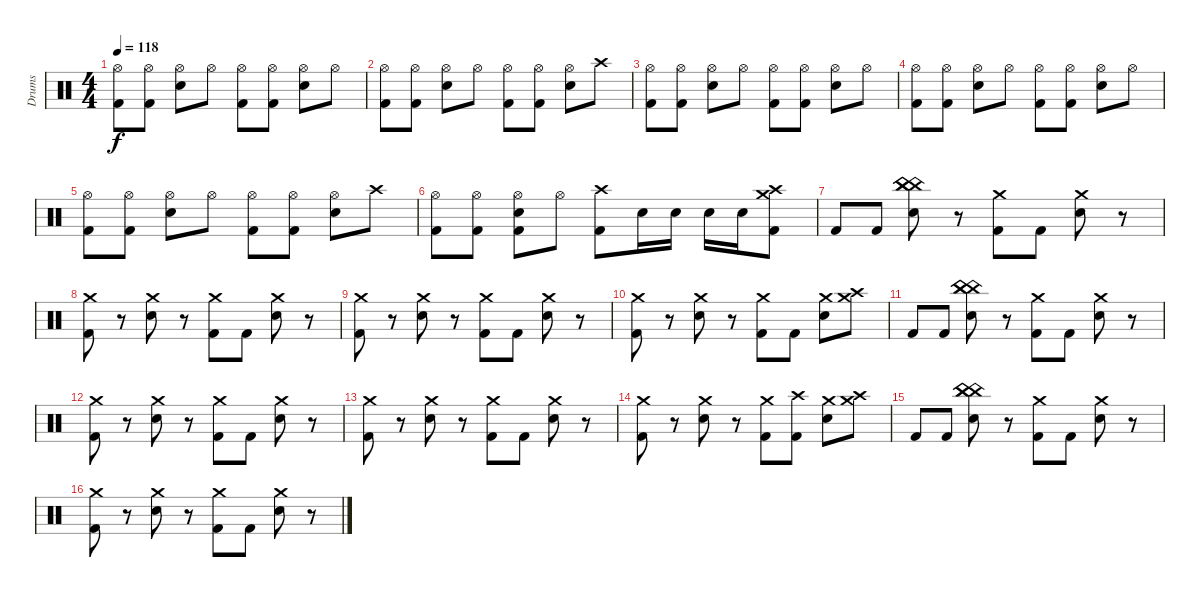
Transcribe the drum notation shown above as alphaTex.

\track ("Drums" "Drums") {instrument percussion}
\staff {score}
\articulation defaults
\ts (4 4)
\tempo 118
\clef neutral
\ks c
("Hi-Hat (open)" "Kick (hit) 2").8{dy f} ("Hi-Hat (open)" "Kick (hit) 2").8 ("Hi-Hat (open)" "Electric Snare (hit)").8 "Hi-Hat (open)".8 ("Hi-Hat (open)" "Kick (hit) 2").8 ("Hi-Hat (open)" "Kick (hit) 2").8 ("Hi-Hat (open)" "Electric Snare (hit)").8 "Hi-Hat (open)".8 |
("Hi-Hat (open)" "Kick (hit) 2").8 ("Hi-Hat (open)" "Kick (hit) 2").8 ("Hi-Hat (open)" "Electric Snare (hit)").8 "Hi-Hat (open)".8 ("Hi-Hat (open)" "Kick (hit) 2").8 ("Hi-Hat (open)" "Kick (hit) 2").8 ("Hi-Hat (open)" "Electric Snare (hit)").8 "Crash high (hit)".8 |
("Hi-Hat (open)" "Kick (hit) 2").8 ("Hi-Hat (open)" "Kick (hit) 2").8 ("Hi-Hat (open)" "Electric Snare (hit)").8 "Hi-Hat (open)".8 ("Hi-Hat (open)" "Kick (hit) 2").8 ("Hi-Hat (open)" "Kick (hit) 2").8 ("Hi-Hat (open)" "Electric Snare (hit)").8 "Hi-Hat (open)".8 |
("Hi-Hat (open)" "Kick (hit) 2").8 ("Hi-Hat (open)" "Kick (hit) 2").8 ("Hi-Hat (open)" "Electric Snare (hit)").8 "Hi-Hat (open)".8 ("Hi-Hat (open)" "Kick (hit) 2").8 ("Hi-Hat (open)" "Kick (hit) 2").8 ("Hi-Hat (open)" "Electric Snare (hit)").8 "Hi-Hat (open)".8 |
("Hi-Hat (open)" "Kick (hit) 2").8 ("Hi-Hat (open)" "Kick (hit) 2").8 ("Hi-Hat (open)" "Electric Snare (hit)").8 "Hi-Hat (open)".8 ("Hi-Hat (open)" "Kick (hit) 2").8 ("Hi-Hat (open)" "Kick (hit) 2").8 ("Hi-Hat (open)" "Electric Snare (hit)").8 "Crash high (hit)".8 |
("Hi-Hat (open)" "Kick (hit) 2").8 ("Hi-Hat (open)" "Kick (hit) 2").8 ("Hi-Hat (open)" "Electric Snare (hit)" "Kick (hit) 2").8 "Hi-Hat (open)".8 ("Crash high (hit)" "Kick (hit) 2").8 "Electric Snare (hit)".16 "Electric Snare (hit)".16 "Electric Snare (hit)".16 "Electric Snare (hit)".16 ("Crash medium (hit)" "Crash high (hit)" "Kick (hit) 2").8 |
"Kick (hit) 2".8 "Kick (hit) 2".8 ("China (hit)" "China (hit)" "China (hit)" "Electric Snare (hit)").8 r.8 ("Crash medium (hit)" "Kick (hit) 2").8 "Kick (hit) 2".8 ("Crash medium (hit)" "Electric Snare (hit)").8 r.8 |
("Crash medium (hit)" "Kick (hit) 2").8 r.8 ("Crash medium (hit)" "Electric Snare (hit)").8 r.8 ("Crash medium (hit)" "Kick (hit) 2").8 "Kick (hit) 2".8 ("Crash medium (hit)" "Electric Snare (hit)").8 r.8 |
("Crash medium (hit)" "Kick (hit) 2").8 r.8 ("Crash medium (hit)" "Electric Snare (hit)").8 r.8 ("Crash medium (hit)" "Kick (hit) 2").8 "Kick (hit) 2".8 ("Crash medium (hit)" "Electric Snare (hit)").8 r.8 |
("Crash medium (hit)" "Kick (hit) 2").8 r.8 ("Crash medium (hit)" "Electric Snare (hit)").8 r.8 ("Crash medium (hit)" "Kick (hit) 2").8 "Kick (hit) 2".8 ("Crash medium (hit)" "Electric Snare (hit)").8 ("Crash medium (hit)" "Crash high (hit)").8 |
"Kick (hit) 2".8 "Kick (hit) 2".8 ("China (hit)" "China (hit)" "China (hit)" "Electric Snare (hit)").8 r.8 ("Crash medium (hit)" "Kick (hit) 2").8 "Kick (hit) 2".8 ("Crash medium (hit)" "Electric Snare (hit)").8 r.8 |
("Crash medium (hit)" "Kick (hit) 2").8 r.8 ("Crash medium (hit)" "Electric Snare (hit)").8 r.8 ("Crash medium (hit)" "Kick (hit) 2").8 "Kick (hit) 2".8 ("Crash medium (hit)" "Electric Snare (hit)").8 r.8 |
("Crash medium (hit)" "Kick (hit) 2").8 r.8 ("Crash medium (hit)" "Electric Snare (hit)").8 r.8 ("Crash medium (hit)" "Kick (hit) 2").8 "Kick (hit) 2".8 ("Crash medium (hit)" "Electric Snare (hit)").8 r.8 |
("Crash medium (hit)" "Kick (hit) 2").8 r.8 ("Crash medium (hit)" "Electric Snare (hit)").8 r.8 ("Crash medium (hit)" "Kick (hit) 2").8 ("Crash high (hit)" "Kick (hit) 2").8 ("Crash medium (hit)" "Electric Snare (hit)").8 ("Crash medium (hit)" "Crash high (hit)").8 |
"Kick (hit) 2".8 "Kick (hit) 2".8 ("China (hit)" "China (hit)" "China (hit)" "Electric Snare (hit)").8 r.8 ("Crash medium (hit)" "Kick (hit) 2").8 "Kick (hit) 2".8 ("Crash medium (hit)" "Electric Snare (hit)").8 r.8 |
("Crash medium (hit)" "Kick (hit) 2").8 r.8 ("Crash medium (hit)" "Electric Snare (hit)").8 r.8 ("Crash medium (hit)" "Kick (hit) 2").8 "Kick (hit) 2".8 ("Crash medium (hit)" "Electric Snare (hit)").8 r.8
